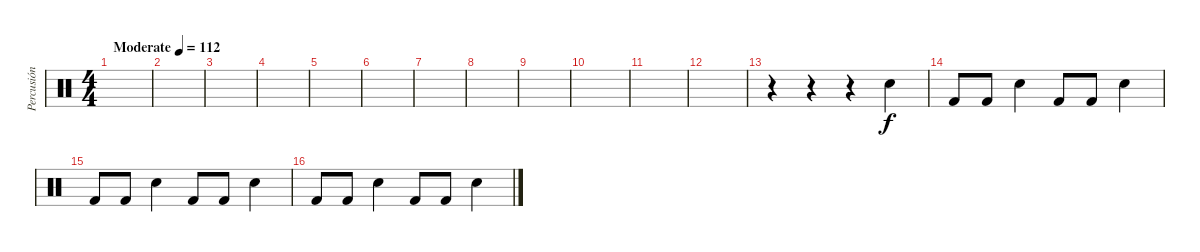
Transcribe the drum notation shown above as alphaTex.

\track ("Percusión" "Percusión") {instrument percussion}
\staff {score}
\articulation defaults
\ts (4 4)
\tempo (112 "Moderate")
\clef neutral
\ks c
|
|
|
|
|
|
|
|
|
|
|
|
r.4 r.4 r.4 "Snare (hit) 2".4 |
"Kick (hit) 2".8 "Kick (hit) 2".8 "Snare (hit) 2".4 "Kick (hit) 2".8 "Kick (hit) 2".8 "Snare (hit) 2".4 |
"Kick (hit) 2".8 "Kick (hit) 2".8 "Snare (hit) 2".4 "Kick (hit) 2".8 "Kick (hit) 2".8 "Snare (hit) 2".4 |
"Kick (hit) 2".8 "Kick (hit) 2".8 "Snare (hit) 2".4 "Kick (hit) 2".8 "Kick (hit) 2".8 "Snare (hit) 2".4
